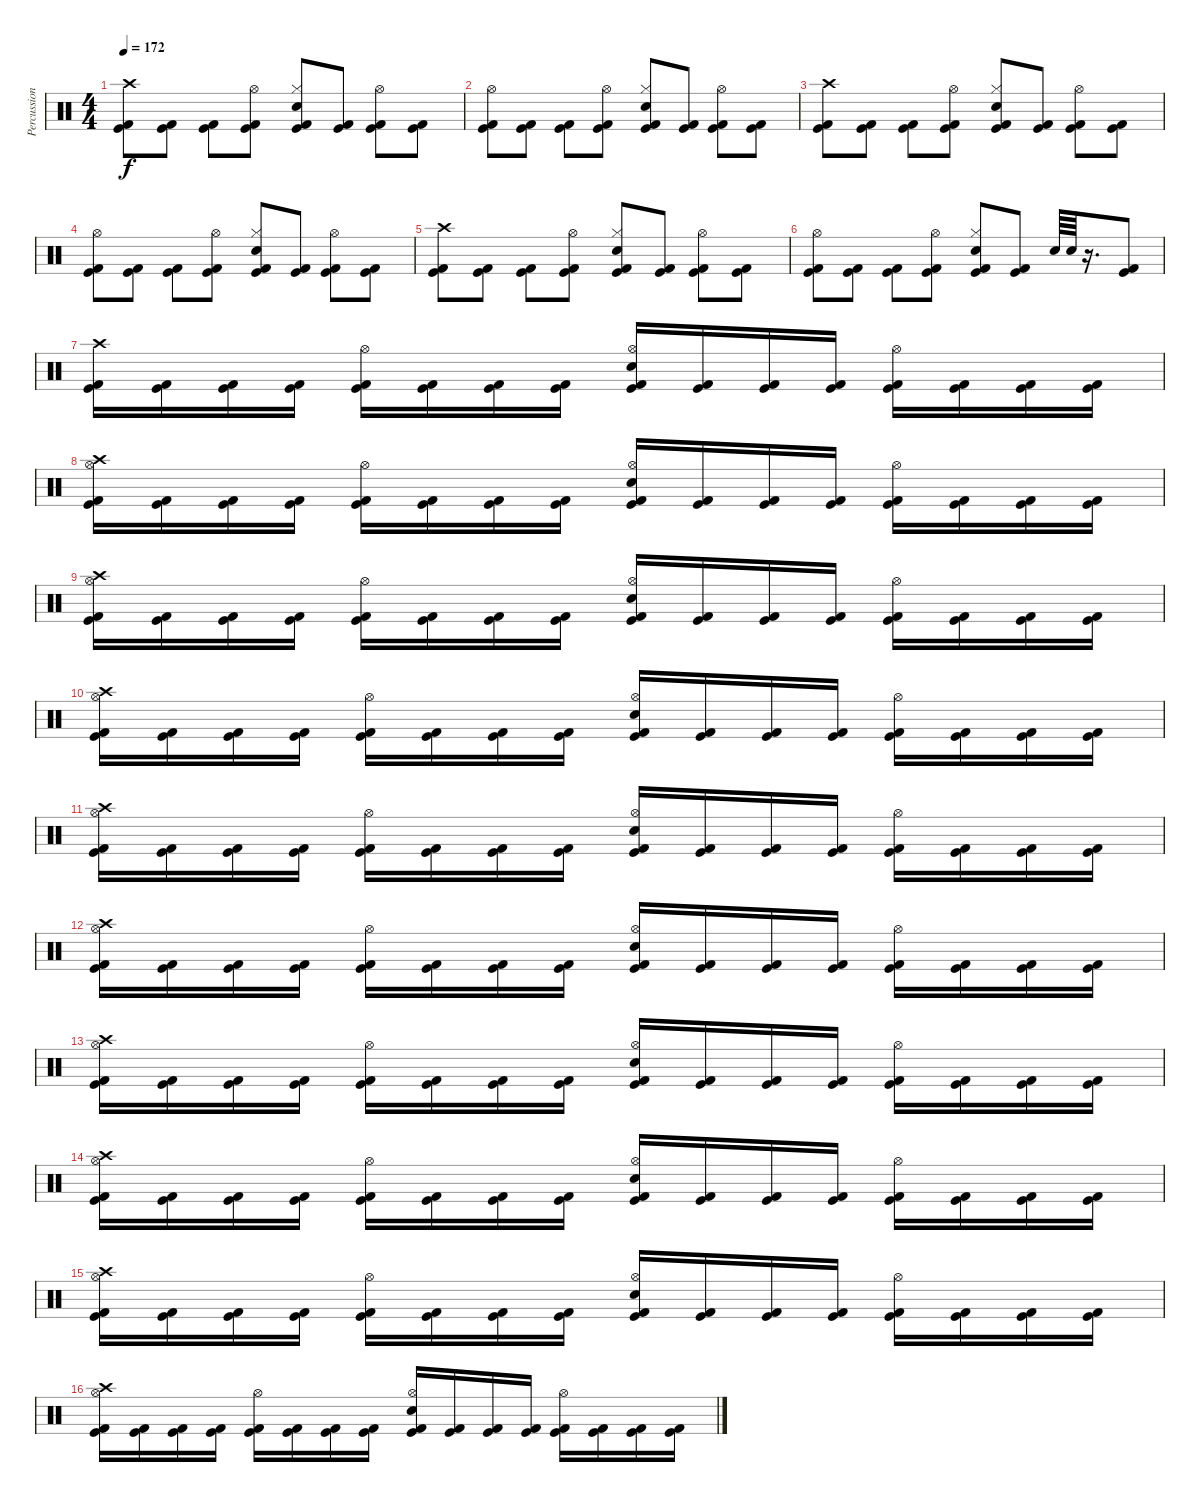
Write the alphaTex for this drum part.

\track ("Percussion" "Percussion") {instrument percussion}
\staff {score}
\articulation defaults
\ts (4 4)
\tempo 172
\clef neutral
\ks c
("Crash high (hit)" "Kick (hit)" "Kick (hit) 2").8{dy f} ("Kick (hit)" "Kick (hit) 2").8 ("Kick (hit)" "Kick (hit) 2").8 ("Hi-Hat (open)" "Kick (hit)" "Kick (hit) 2").8 ("Hi-Hat (closed)" "Snare (hit) 2" "Kick (hit)" "Kick (hit) 2").8 ("Kick (hit)" "Kick (hit) 2").8 ("Hi-Hat (open)" "Kick (hit)" "Kick (hit) 2").8 ("Kick (hit)" "Kick (hit) 2").8 |
("Hi-Hat (open)" "Kick (hit)" "Kick (hit) 2").8 ("Kick (hit)" "Kick (hit) 2").8 ("Kick (hit)" "Kick (hit) 2").8 ("Hi-Hat (open)" "Kick (hit)" "Kick (hit) 2").8 ("Hi-Hat (closed)" "Snare (hit) 2" "Kick (hit)" "Kick (hit) 2").8 ("Kick (hit)" "Kick (hit) 2").8 ("Hi-Hat (open)" "Kick (hit)" "Kick (hit) 2").8 ("Kick (hit)" "Kick (hit) 2").8 |
("Crash high (hit)" "Kick (hit)" "Kick (hit) 2").8 ("Kick (hit)" "Kick (hit) 2").8 ("Kick (hit)" "Kick (hit) 2").8 ("Hi-Hat (open)" "Kick (hit)" "Kick (hit) 2").8 ("Hi-Hat (closed)" "Snare (hit) 2" "Kick (hit)" "Kick (hit) 2").8 ("Kick (hit)" "Kick (hit) 2").8 ("Hi-Hat (open)" "Kick (hit)" "Kick (hit) 2").8 ("Kick (hit)" "Kick (hit) 2").8 |
("Hi-Hat (open)" "Kick (hit)" "Kick (hit) 2").8 ("Kick (hit)" "Kick (hit) 2").8 ("Kick (hit)" "Kick (hit) 2").8 ("Hi-Hat (open)" "Kick (hit)" "Kick (hit) 2").8 ("Hi-Hat (closed)" "Snare (hit) 2" "Kick (hit)" "Kick (hit) 2").8 ("Kick (hit)" "Kick (hit) 2").8 ("Hi-Hat (open)" "Kick (hit)" "Kick (hit) 2").8 ("Kick (hit)" "Kick (hit) 2").8 |
("Crash high (hit)" "Kick (hit)" "Kick (hit) 2").8 ("Kick (hit)" "Kick (hit) 2").8 ("Kick (hit)" "Kick (hit) 2").8 ("Hi-Hat (open)" "Kick (hit)" "Kick (hit) 2").8 ("Hi-Hat (closed)" "Snare (hit) 2" "Kick (hit)" "Kick (hit) 2").8 ("Kick (hit)" "Kick (hit) 2").8 ("Hi-Hat (open)" "Kick (hit)" "Kick (hit) 2").8 ("Kick (hit)" "Kick (hit) 2").8 |
("Hi-Hat (open)" "Kick (hit)" "Kick (hit) 2").8 ("Kick (hit)" "Kick (hit) 2").8 ("Kick (hit)" "Kick (hit) 2").8 ("Hi-Hat (open)" "Kick (hit)" "Kick (hit) 2").8 ("Hi-Hat (closed)" "Snare (hit) 2" "Kick (hit)" "Kick (hit) 2").8 ("Kick (hit)" "Kick (hit) 2").8 "Snare (hit) 2".64 "Snare (hit) 2".64 r.16{d} ("Kick (hit)" "Kick (hit) 2").8 |
("Crash high (hit)" "Kick (hit)" "Kick (hit) 2").16 ("Kick (hit)" "Kick (hit) 2").16 ("Kick (hit)" "Kick (hit) 2").16 ("Kick (hit)" "Kick (hit) 2").16 ("Hi-Hat (open)" "Kick (hit)" "Kick (hit) 2").16 ("Kick (hit)" "Kick (hit) 2").16 ("Kick (hit)" "Kick (hit) 2").16 ("Kick (hit)" "Kick (hit) 2").16 ("Hi-Hat (open)" "Snare (hit) 2" "Kick (hit)" "Kick (hit) 2").16 ("Kick (hit)" "Kick (hit) 2").16 ("Kick (hit)" "Kick (hit) 2").16 ("Kick (hit)" "Kick (hit) 2").16 ("Hi-Hat (open)" "Kick (hit)" "Kick (hit) 2").16 ("Kick (hit)" "Kick (hit) 2").16 ("Kick (hit)" "Kick (hit) 2").16 ("Kick (hit)" "Kick (hit) 2").16 |
("Hi-Hat (open)" "Crash high (hit)" "Kick (hit)" "Kick (hit) 2").16 ("Kick (hit)" "Kick (hit) 2").16 ("Kick (hit)" "Kick (hit) 2").16 ("Kick (hit)" "Kick (hit) 2").16 ("Hi-Hat (open)" "Kick (hit)" "Kick (hit) 2").16 ("Kick (hit)" "Kick (hit) 2").16 ("Kick (hit)" "Kick (hit) 2").16 ("Kick (hit)" "Kick (hit) 2").16 ("Hi-Hat (open)" "Snare (hit) 2" "Kick (hit)" "Kick (hit) 2").16 ("Kick (hit)" "Kick (hit) 2").16 ("Kick (hit)" "Kick (hit) 2").16 ("Kick (hit)" "Kick (hit) 2").16 ("Hi-Hat (open)" "Kick (hit)" "Kick (hit) 2").16 ("Kick (hit)" "Kick (hit) 2").16 ("Kick (hit)" "Kick (hit) 2").16 ("Kick (hit)" "Kick (hit) 2").16 |
("Hi-Hat (open)" "Crash high (hit)" "Kick (hit)" "Kick (hit) 2").16 ("Kick (hit)" "Kick (hit) 2").16 ("Kick (hit)" "Kick (hit) 2").16 ("Kick (hit)" "Kick (hit) 2").16 ("Hi-Hat (open)" "Kick (hit)" "Kick (hit) 2").16 ("Kick (hit)" "Kick (hit) 2").16 ("Kick (hit)" "Kick (hit) 2").16 ("Kick (hit)" "Kick (hit) 2").16 ("Hi-Hat (open)" "Snare (hit) 2" "Kick (hit)" "Kick (hit) 2").16 ("Kick (hit)" "Kick (hit) 2").16 ("Kick (hit)" "Kick (hit) 2").16 ("Kick (hit)" "Kick (hit) 2").16 ("Hi-Hat (open)" "Kick (hit)" "Kick (hit) 2").16 ("Kick (hit)" "Kick (hit) 2").16 ("Kick (hit)" "Kick (hit) 2").16 ("Kick (hit)" "Kick (hit) 2").16 |
("Hi-Hat (open)" "Crash high (hit)" "Kick (hit)" "Kick (hit) 2").16 ("Kick (hit)" "Kick (hit) 2").16 ("Kick (hit)" "Kick (hit) 2").16 ("Kick (hit)" "Kick (hit) 2").16 ("Hi-Hat (open)" "Kick (hit)" "Kick (hit) 2").16 ("Kick (hit)" "Kick (hit) 2").16 ("Kick (hit)" "Kick (hit) 2").16 ("Kick (hit)" "Kick (hit) 2").16 ("Hi-Hat (open)" "Snare (hit) 2" "Kick (hit)" "Kick (hit) 2").16 ("Kick (hit)" "Kick (hit) 2").16 ("Kick (hit)" "Kick (hit) 2").16 ("Kick (hit)" "Kick (hit) 2").16 ("Hi-Hat (open)" "Kick (hit)" "Kick (hit) 2").16 ("Kick (hit)" "Kick (hit) 2").16 ("Kick (hit)" "Kick (hit) 2").16 ("Kick (hit)" "Kick (hit) 2").16 |
("Hi-Hat (open)" "Crash high (hit)" "Kick (hit)" "Kick (hit) 2").16 ("Kick (hit)" "Kick (hit) 2").16 ("Kick (hit)" "Kick (hit) 2").16 ("Kick (hit)" "Kick (hit) 2").16 ("Hi-Hat (open)" "Kick (hit)" "Kick (hit) 2").16 ("Kick (hit)" "Kick (hit) 2").16 ("Kick (hit)" "Kick (hit) 2").16 ("Kick (hit)" "Kick (hit) 2").16 ("Hi-Hat (open)" "Snare (hit) 2" "Kick (hit)" "Kick (hit) 2").16 ("Kick (hit)" "Kick (hit) 2").16 ("Kick (hit)" "Kick (hit) 2").16 ("Kick (hit)" "Kick (hit) 2").16 ("Hi-Hat (open)" "Kick (hit)" "Kick (hit) 2").16 ("Kick (hit)" "Kick (hit) 2").16 ("Kick (hit)" "Kick (hit) 2").16 ("Kick (hit)" "Kick (hit) 2").16 |
("Hi-Hat (open)" "Crash high (hit)" "Kick (hit)" "Kick (hit) 2").16 ("Kick (hit)" "Kick (hit) 2").16 ("Kick (hit)" "Kick (hit) 2").16 ("Kick (hit)" "Kick (hit) 2").16 ("Hi-Hat (open)" "Kick (hit)" "Kick (hit) 2").16 ("Kick (hit)" "Kick (hit) 2").16 ("Kick (hit)" "Kick (hit) 2").16 ("Kick (hit)" "Kick (hit) 2").16 ("Hi-Hat (open)" "Snare (hit) 2" "Kick (hit)" "Kick (hit) 2").16 ("Kick (hit)" "Kick (hit) 2").16 ("Kick (hit)" "Kick (hit) 2").16 ("Kick (hit)" "Kick (hit) 2").16 ("Hi-Hat (open)" "Kick (hit)" "Kick (hit) 2").16 ("Kick (hit)" "Kick (hit) 2").16 ("Kick (hit)" "Kick (hit) 2").16 ("Kick (hit)" "Kick (hit) 2").16 |
("Hi-Hat (open)" "Crash high (hit)" "Kick (hit)" "Kick (hit) 2").16 ("Kick (hit)" "Kick (hit) 2").16 ("Kick (hit)" "Kick (hit) 2").16 ("Kick (hit)" "Kick (hit) 2").16 ("Hi-Hat (open)" "Kick (hit)" "Kick (hit) 2").16 ("Kick (hit)" "Kick (hit) 2").16 ("Kick (hit)" "Kick (hit) 2").16 ("Kick (hit)" "Kick (hit) 2").16 ("Hi-Hat (open)" "Snare (hit) 2" "Kick (hit)" "Kick (hit) 2").16 ("Kick (hit)" "Kick (hit) 2").16 ("Kick (hit)" "Kick (hit) 2").16 ("Kick (hit)" "Kick (hit) 2").16 ("Hi-Hat (open)" "Kick (hit)" "Kick (hit) 2").16 ("Kick (hit)" "Kick (hit) 2").16 ("Kick (hit)" "Kick (hit) 2").16 ("Kick (hit)" "Kick (hit) 2").16 |
("Hi-Hat (open)" "Crash high (hit)" "Kick (hit)" "Kick (hit) 2").16 ("Kick (hit)" "Kick (hit) 2").16 ("Kick (hit)" "Kick (hit) 2").16 ("Kick (hit)" "Kick (hit) 2").16 ("Hi-Hat (open)" "Kick (hit)" "Kick (hit) 2").16 ("Kick (hit)" "Kick (hit) 2").16 ("Kick (hit)" "Kick (hit) 2").16 ("Kick (hit)" "Kick (hit) 2").16 ("Hi-Hat (open)" "Snare (hit) 2" "Kick (hit)" "Kick (hit) 2").16 ("Kick (hit)" "Kick (hit) 2").16 ("Kick (hit)" "Kick (hit) 2").16 ("Kick (hit)" "Kick (hit) 2").16 ("Hi-Hat (open)" "Kick (hit)" "Kick (hit) 2").16 ("Kick (hit)" "Kick (hit) 2").16 ("Kick (hit)" "Kick (hit) 2").16 ("Kick (hit)" "Kick (hit) 2").16 |
("Hi-Hat (open)" "Crash high (hit)" "Kick (hit)" "Kick (hit) 2").16 ("Kick (hit)" "Kick (hit) 2").16 ("Kick (hit)" "Kick (hit) 2").16 ("Kick (hit)" "Kick (hit) 2").16 ("Hi-Hat (open)" "Kick (hit)" "Kick (hit) 2").16 ("Kick (hit)" "Kick (hit) 2").16 ("Kick (hit)" "Kick (hit) 2").16 ("Kick (hit)" "Kick (hit) 2").16 ("Hi-Hat (open)" "Snare (hit) 2" "Kick (hit)" "Kick (hit) 2").16 ("Kick (hit)" "Kick (hit) 2").16 ("Kick (hit)" "Kick (hit) 2").16 ("Kick (hit)" "Kick (hit) 2").16 ("Hi-Hat (open)" "Kick (hit)" "Kick (hit) 2").16 ("Kick (hit)" "Kick (hit) 2").16 ("Kick (hit)" "Kick (hit) 2").16 ("Kick (hit)" "Kick (hit) 2").16 |
("Hi-Hat (open)" "Crash high (hit)" "Kick (hit)" "Kick (hit) 2").16 ("Kick (hit)" "Kick (hit) 2").16 ("Kick (hit)" "Kick (hit) 2").16 ("Kick (hit)" "Kick (hit) 2").16 ("Hi-Hat (open)" "Kick (hit)" "Kick (hit) 2").16 ("Kick (hit)" "Kick (hit) 2").16 ("Kick (hit)" "Kick (hit) 2").16 ("Kick (hit)" "Kick (hit) 2").16 ("Hi-Hat (open)" "Snare (hit) 2" "Kick (hit)" "Kick (hit) 2").16 ("Kick (hit)" "Kick (hit) 2").16 ("Kick (hit)" "Kick (hit) 2").16 ("Kick (hit)" "Kick (hit) 2").16 ("Hi-Hat (open)" "Kick (hit)" "Kick (hit) 2").16 ("Kick (hit)" "Kick (hit) 2").16 ("Kick (hit)" "Kick (hit) 2").16 ("Kick (hit)" "Kick (hit) 2").16
